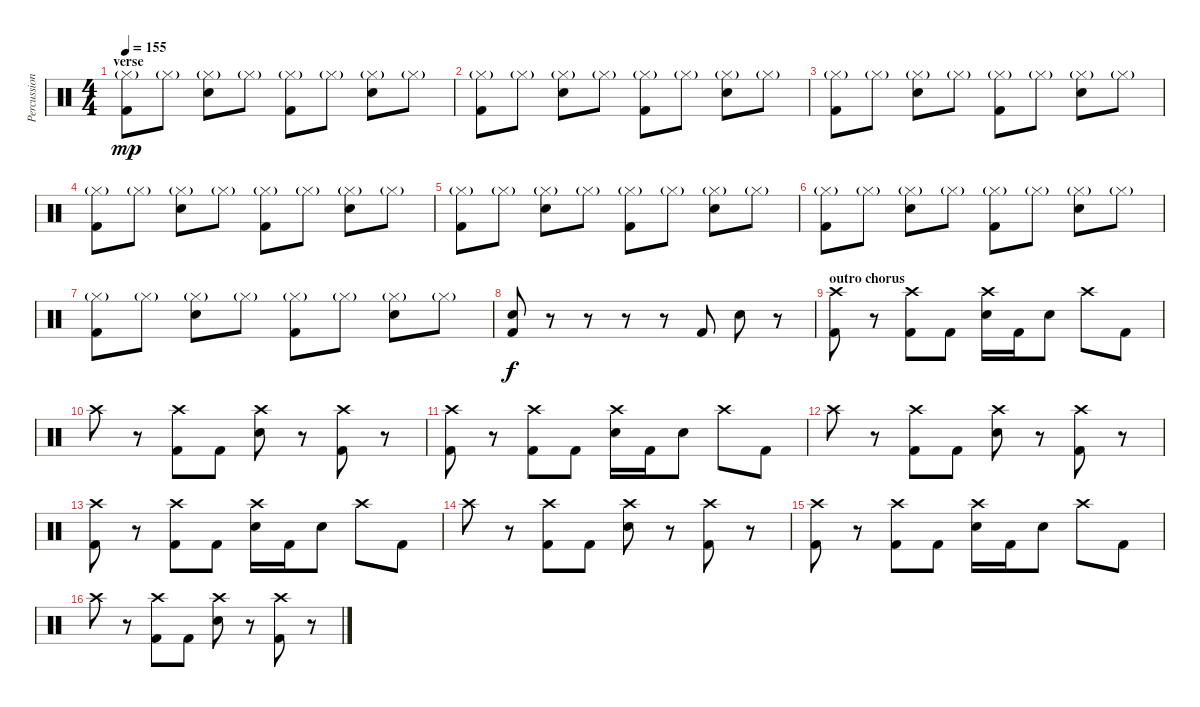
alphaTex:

\track ("Percussion" "Percussion") {instrument percussion}
\staff {score}
\articulation defaults
\ts (4 4)
\section ("" "verse")
\tempo 155
\clef neutral
\ks c
("Hi-Hat (closed)"{g} "Kick (hit) 2").8{dy mp} "Hi-Hat (closed)"{g}.8 ("Hi-Hat (closed)"{g} "Snare (hit) 2").8 "Hi-Hat (closed)"{g}.8 ("Hi-Hat (closed)"{g} "Kick (hit) 2").8 "Hi-Hat (closed)"{g}.8 ("Hi-Hat (closed)"{g} "Snare (hit) 2").8 "Hi-Hat (closed)"{g}.8 |
("Hi-Hat (closed)"{g} "Kick (hit) 2").8 "Hi-Hat (closed)"{g}.8 ("Hi-Hat (closed)"{g} "Snare (hit) 2").8 "Hi-Hat (closed)"{g}.8 ("Hi-Hat (closed)"{g} "Kick (hit) 2").8 "Hi-Hat (closed)"{g}.8 ("Hi-Hat (closed)"{g} "Snare (hit) 2").8 "Hi-Hat (closed)"{g}.8 |
("Hi-Hat (closed)"{g} "Kick (hit) 2").8 "Hi-Hat (closed)"{g}.8 ("Hi-Hat (closed)"{g} "Snare (hit) 2").8 "Hi-Hat (closed)"{g}.8 ("Hi-Hat (closed)"{g} "Kick (hit) 2").8 "Hi-Hat (closed)"{g}.8 ("Hi-Hat (closed)"{g} "Snare (hit) 2").8 "Hi-Hat (closed)"{g}.8 |
("Hi-Hat (closed)"{g} "Kick (hit) 2").8 "Hi-Hat (closed)"{g}.8 ("Hi-Hat (closed)"{g} "Snare (hit) 2").8 "Hi-Hat (closed)"{g}.8 ("Hi-Hat (closed)"{g} "Kick (hit) 2").8 "Hi-Hat (closed)"{g}.8 ("Hi-Hat (closed)"{g} "Snare (hit) 2").8 "Hi-Hat (closed)"{g}.8 |
("Hi-Hat (closed)"{g} "Kick (hit) 2").8 "Hi-Hat (closed)"{g}.8 ("Hi-Hat (closed)"{g} "Snare (hit) 2").8 "Hi-Hat (closed)"{g}.8 ("Hi-Hat (closed)"{g} "Kick (hit) 2").8 "Hi-Hat (closed)"{g}.8 ("Hi-Hat (closed)"{g} "Snare (hit) 2").8 "Hi-Hat (closed)"{g}.8 |
("Hi-Hat (closed)"{g} "Kick (hit) 2").8 "Hi-Hat (closed)"{g}.8 ("Hi-Hat (closed)"{g} "Snare (hit) 2").8 "Hi-Hat (closed)"{g}.8 ("Hi-Hat (closed)"{g} "Kick (hit) 2").8 "Hi-Hat (closed)"{g}.8 ("Hi-Hat (closed)"{g} "Snare (hit) 2").8 "Hi-Hat (closed)"{g}.8 |
("Hi-Hat (closed)"{g} "Kick (hit) 2").8 "Hi-Hat (closed)"{g}.8 ("Hi-Hat (closed)"{g} "Snare (hit) 2").8 "Hi-Hat (closed)"{g}.8 ("Hi-Hat (closed)"{g} "Kick (hit) 2").8 "Hi-Hat (closed)"{g}.8 ("Hi-Hat (closed)"{g} "Snare (hit) 2").8 "Hi-Hat (closed)"{g}.8 |
("Snare (hit) 2" "Kick (hit) 2").8{dy f} r.8 r.8 r.8 r.8 "Kick (hit) 2".8 "Snare (hit) 2".8 r.8 |
\section ("" "outro chorus")
("Crash high (hit)" "Kick (hit) 2").8 r.8 ("Crash high (hit)" "Kick (hit) 2").8 "Kick (hit) 2".8 ("Crash high (hit)" "Snare (hit) 2").16 "Kick (hit) 2".16 "Snare (hit) 2".8 "Crash high (hit)".8 "Kick (hit) 2".8 |
"Crash high (hit)".8 r.8 ("Crash high (hit)" "Kick (hit) 2").8 "Kick (hit) 2".8 ("Crash high (hit)" "Snare (hit) 2").8 r.8 ("Crash high (hit)" "Kick (hit) 2").8 r.8 |
("Crash high (hit)" "Kick (hit) 2").8 r.8 ("Crash high (hit)" "Kick (hit) 2").8 "Kick (hit) 2".8 ("Crash high (hit)" "Snare (hit) 2").16 "Kick (hit) 2".16 "Snare (hit) 2".8 "Crash high (hit)".8 "Kick (hit) 2".8 |
"Crash high (hit)".8 r.8 ("Crash high (hit)" "Kick (hit) 2").8 "Kick (hit) 2".8 ("Crash high (hit)" "Snare (hit) 2").8 r.8 ("Crash high (hit)" "Kick (hit) 2").8 r.8 |
("Crash high (hit)" "Kick (hit) 2").8 r.8 ("Crash high (hit)" "Kick (hit) 2").8 "Kick (hit) 2".8 ("Crash high (hit)" "Snare (hit) 2").16 "Kick (hit) 2".16 "Snare (hit) 2".8 "Crash high (hit)".8 "Kick (hit) 2".8 |
"Crash high (hit)".8 r.8 ("Crash high (hit)" "Kick (hit) 2").8 "Kick (hit) 2".8 ("Crash high (hit)" "Snare (hit) 2").8 r.8 ("Crash high (hit)" "Kick (hit) 2").8 r.8 |
("Crash high (hit)" "Kick (hit) 2").8 r.8 ("Crash high (hit)" "Kick (hit) 2").8 "Kick (hit) 2".8 ("Crash high (hit)" "Snare (hit) 2").16 "Kick (hit) 2".16 "Snare (hit) 2".8 "Crash high (hit)".8 "Kick (hit) 2".8 |
"Crash high (hit)".8 r.8 ("Crash high (hit)" "Kick (hit) 2").8 "Kick (hit) 2".8 ("Crash high (hit)" "Snare (hit) 2").8 r.8 ("Crash high (hit)" "Kick (hit) 2").8 r.8
